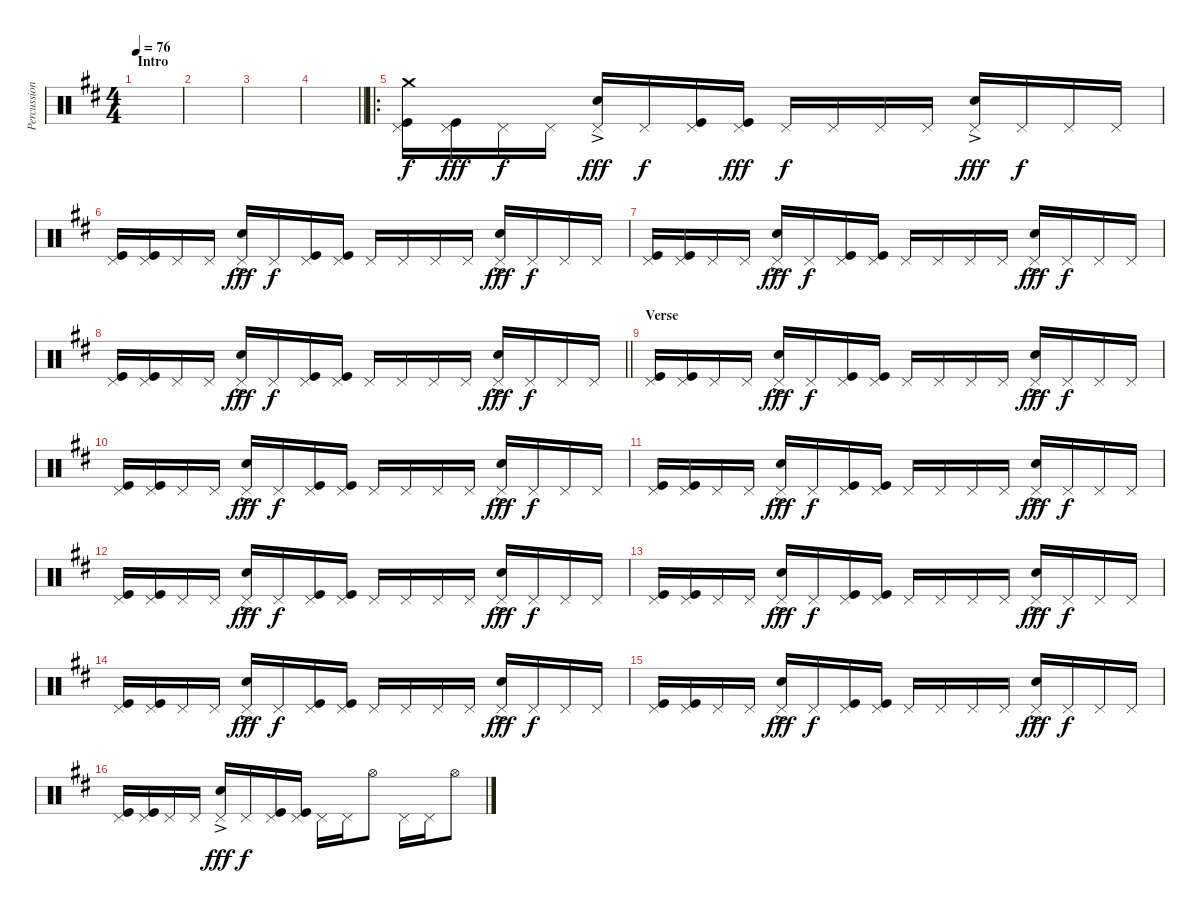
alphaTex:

\track ("Percussion" "Percussion") {instrument percussion}
\staff {score}
\articulation defaults
\ts (4 4)
\section ("" "Intro")
\tempo 76
\clef neutral
\ks d
|
|
|
\barLineRight lightlight
|
\ro
("Kick (hit)" "Pedal Hi-Hat (hit)" "Crash medium (hit)").16 ("Kick (hit)" "Pedal Hi-Hat (hit)").16{dy fff} "Pedal Hi-Hat (hit)".16{dy f} "Pedal Hi-Hat (hit)".16 ("Electric Snare (hit)"{ac} "Pedal Hi-Hat (hit)").16{dy fff} "Pedal Hi-Hat (hit)".16{dy f} ("Kick (hit)" "Pedal Hi-Hat (hit)").16 ("Kick (hit)" "Pedal Hi-Hat (hit)").16{dy fff} "Pedal Hi-Hat (hit)".16{dy f} "Pedal Hi-Hat (hit)".16 "Pedal Hi-Hat (hit)".16 "Pedal Hi-Hat (hit)".16 ("Electric Snare (hit)"{ac} "Pedal Hi-Hat (hit)").16{dy fff} "Pedal Hi-Hat (hit)".16{dy f} "Pedal Hi-Hat (hit)".16 "Pedal Hi-Hat (hit)".16 |
("Kick (hit)" "Pedal Hi-Hat (hit)").16 ("Kick (hit)" "Pedal Hi-Hat (hit)").16 "Pedal Hi-Hat (hit)".16 "Pedal Hi-Hat (hit)".16 ("Electric Snare (hit)"{ac} "Pedal Hi-Hat (hit)").16{dy fff} "Pedal Hi-Hat (hit)".16{dy f} ("Kick (hit)" "Pedal Hi-Hat (hit)").16 ("Kick (hit)" "Pedal Hi-Hat (hit)").16 "Pedal Hi-Hat (hit)".16 "Pedal Hi-Hat (hit)".16 "Pedal Hi-Hat (hit)".16 "Pedal Hi-Hat (hit)".16 ("Electric Snare (hit)"{ac} "Pedal Hi-Hat (hit)").16{dy fff} "Pedal Hi-Hat (hit)".16{dy f} "Pedal Hi-Hat (hit)".16 "Pedal Hi-Hat (hit)".16 |
("Kick (hit)" "Pedal Hi-Hat (hit)").16 ("Kick (hit)" "Pedal Hi-Hat (hit)").16 "Pedal Hi-Hat (hit)".16 "Pedal Hi-Hat (hit)".16 ("Electric Snare (hit)"{ac} "Pedal Hi-Hat (hit)").16{dy fff} "Pedal Hi-Hat (hit)".16{dy f} ("Kick (hit)" "Pedal Hi-Hat (hit)").16 ("Kick (hit)" "Pedal Hi-Hat (hit)").16 "Pedal Hi-Hat (hit)".16 "Pedal Hi-Hat (hit)".16 "Pedal Hi-Hat (hit)".16 "Pedal Hi-Hat (hit)".16 ("Electric Snare (hit)"{ac} "Pedal Hi-Hat (hit)").16{dy fff} "Pedal Hi-Hat (hit)".16{dy f} "Pedal Hi-Hat (hit)".16 "Pedal Hi-Hat (hit)".16 |
\barLineRight lightlight
("Kick (hit)" "Pedal Hi-Hat (hit)").16 ("Kick (hit)" "Pedal Hi-Hat (hit)").16 "Pedal Hi-Hat (hit)".16 "Pedal Hi-Hat (hit)".16 ("Electric Snare (hit)"{ac} "Pedal Hi-Hat (hit)").16{dy fff} "Pedal Hi-Hat (hit)".16{dy f} ("Kick (hit)" "Pedal Hi-Hat (hit)").16 ("Kick (hit)" "Pedal Hi-Hat (hit)").16 "Pedal Hi-Hat (hit)".16 "Pedal Hi-Hat (hit)".16 "Pedal Hi-Hat (hit)".16 "Pedal Hi-Hat (hit)".16 ("Electric Snare (hit)"{ac} "Pedal Hi-Hat (hit)").16{dy fff} "Pedal Hi-Hat (hit)".16{dy f} "Pedal Hi-Hat (hit)".16 "Pedal Hi-Hat (hit)".16 |
\section ("" "Verse")
("Kick (hit)" "Pedal Hi-Hat (hit)").16 ("Kick (hit)" "Pedal Hi-Hat (hit)").16 "Pedal Hi-Hat (hit)".16 "Pedal Hi-Hat (hit)".16 ("Electric Snare (hit)"{ac} "Pedal Hi-Hat (hit)").16{dy fff} "Pedal Hi-Hat (hit)".16{dy f} ("Kick (hit)" "Pedal Hi-Hat (hit)").16 ("Kick (hit)" "Pedal Hi-Hat (hit)").16 "Pedal Hi-Hat (hit)".16 "Pedal Hi-Hat (hit)".16 "Pedal Hi-Hat (hit)".16 "Pedal Hi-Hat (hit)".16 ("Electric Snare (hit)"{ac} "Pedal Hi-Hat (hit)").16{dy fff} "Pedal Hi-Hat (hit)".16{dy f} "Pedal Hi-Hat (hit)".16 "Pedal Hi-Hat (hit)".16 |
("Kick (hit)" "Pedal Hi-Hat (hit)").16 ("Kick (hit)" "Pedal Hi-Hat (hit)").16 "Pedal Hi-Hat (hit)".16 "Pedal Hi-Hat (hit)".16 ("Electric Snare (hit)"{ac} "Pedal Hi-Hat (hit)").16{dy fff} "Pedal Hi-Hat (hit)".16{dy f} ("Kick (hit)" "Pedal Hi-Hat (hit)").16 ("Kick (hit)" "Pedal Hi-Hat (hit)").16 "Pedal Hi-Hat (hit)".16 "Pedal Hi-Hat (hit)".16 "Pedal Hi-Hat (hit)".16 "Pedal Hi-Hat (hit)".16 ("Electric Snare (hit)"{ac} "Pedal Hi-Hat (hit)").16{dy fff} "Pedal Hi-Hat (hit)".16{dy f} "Pedal Hi-Hat (hit)".16 "Pedal Hi-Hat (hit)".16 |
("Kick (hit)" "Pedal Hi-Hat (hit)").16 ("Kick (hit)" "Pedal Hi-Hat (hit)").16 "Pedal Hi-Hat (hit)".16 "Pedal Hi-Hat (hit)".16 ("Electric Snare (hit)"{ac} "Pedal Hi-Hat (hit)").16{dy fff} "Pedal Hi-Hat (hit)".16{dy f} ("Kick (hit)" "Pedal Hi-Hat (hit)").16 ("Kick (hit)" "Pedal Hi-Hat (hit)").16 "Pedal Hi-Hat (hit)".16 "Pedal Hi-Hat (hit)".16 "Pedal Hi-Hat (hit)".16 "Pedal Hi-Hat (hit)".16 ("Electric Snare (hit)"{ac} "Pedal Hi-Hat (hit)").16{dy fff} "Pedal Hi-Hat (hit)".16{dy f} "Pedal Hi-Hat (hit)".16 "Pedal Hi-Hat (hit)".16 |
("Kick (hit)" "Pedal Hi-Hat (hit)").16 ("Kick (hit)" "Pedal Hi-Hat (hit)").16 "Pedal Hi-Hat (hit)".16 "Pedal Hi-Hat (hit)".16 ("Electric Snare (hit)"{ac} "Pedal Hi-Hat (hit)").16{dy fff} "Pedal Hi-Hat (hit)".16{dy f} ("Kick (hit)" "Pedal Hi-Hat (hit)").16 ("Kick (hit)" "Pedal Hi-Hat (hit)").16 "Pedal Hi-Hat (hit)".16 "Pedal Hi-Hat (hit)".16 "Pedal Hi-Hat (hit)".16 "Pedal Hi-Hat (hit)".16 ("Electric Snare (hit)"{ac} "Pedal Hi-Hat (hit)").16{dy fff} "Pedal Hi-Hat (hit)".16{dy f} "Pedal Hi-Hat (hit)".16 "Pedal Hi-Hat (hit)".16 |
("Kick (hit)" "Pedal Hi-Hat (hit)").16 ("Kick (hit)" "Pedal Hi-Hat (hit)").16 "Pedal Hi-Hat (hit)".16 "Pedal Hi-Hat (hit)".16 ("Electric Snare (hit)"{ac} "Pedal Hi-Hat (hit)").16{dy fff} "Pedal Hi-Hat (hit)".16{dy f} ("Kick (hit)" "Pedal Hi-Hat (hit)").16 ("Kick (hit)" "Pedal Hi-Hat (hit)").16 "Pedal Hi-Hat (hit)".16 "Pedal Hi-Hat (hit)".16 "Pedal Hi-Hat (hit)".16 "Pedal Hi-Hat (hit)".16 ("Electric Snare (hit)"{ac} "Pedal Hi-Hat (hit)").16{dy fff} "Pedal Hi-Hat (hit)".16{dy f} "Pedal Hi-Hat (hit)".16 "Pedal Hi-Hat (hit)".16 |
("Kick (hit)" "Pedal Hi-Hat (hit)").16 ("Kick (hit)" "Pedal Hi-Hat (hit)").16 "Pedal Hi-Hat (hit)".16 "Pedal Hi-Hat (hit)".16 ("Electric Snare (hit)"{ac} "Pedal Hi-Hat (hit)").16{dy fff} "Pedal Hi-Hat (hit)".16{dy f} ("Kick (hit)" "Pedal Hi-Hat (hit)").16 ("Kick (hit)" "Pedal Hi-Hat (hit)").16 "Pedal Hi-Hat (hit)".16 "Pedal Hi-Hat (hit)".16 "Pedal Hi-Hat (hit)".16 "Pedal Hi-Hat (hit)".16 ("Electric Snare (hit)"{ac} "Pedal Hi-Hat (hit)").16{dy fff} "Pedal Hi-Hat (hit)".16{dy f} "Pedal Hi-Hat (hit)".16 "Pedal Hi-Hat (hit)".16 |
("Kick (hit)" "Pedal Hi-Hat (hit)").16 ("Kick (hit)" "Pedal Hi-Hat (hit)").16 "Pedal Hi-Hat (hit)".16 "Pedal Hi-Hat (hit)".16 ("Electric Snare (hit)"{ac} "Pedal Hi-Hat (hit)").16{dy fff} "Pedal Hi-Hat (hit)".16{dy f} ("Kick (hit)" "Pedal Hi-Hat (hit)").16 ("Kick (hit)" "Pedal Hi-Hat (hit)").16 "Pedal Hi-Hat (hit)".16 "Pedal Hi-Hat (hit)".16 "Pedal Hi-Hat (hit)".16 "Pedal Hi-Hat (hit)".16 ("Electric Snare (hit)"{ac} "Pedal Hi-Hat (hit)").16{dy fff} "Pedal Hi-Hat (hit)".16{dy f} "Pedal Hi-Hat (hit)".16 "Pedal Hi-Hat (hit)".16 |
("Kick (hit)" "Pedal Hi-Hat (hit)").16 ("Kick (hit)" "Pedal Hi-Hat (hit)").16 "Pedal Hi-Hat (hit)".16 "Pedal Hi-Hat (hit)".16 ("Electric Snare (hit)"{ac} "Pedal Hi-Hat (hit)").16{dy fff} "Pedal Hi-Hat (hit)".16{dy f} ("Kick (hit)" "Pedal Hi-Hat (hit)").16 ("Kick (hit)" "Pedal Hi-Hat (hit)").16 "Pedal Hi-Hat (hit)".16 "Pedal Hi-Hat (hit)".16 "Hi-Hat (open)".8 "Pedal Hi-Hat (hit)".16 "Pedal Hi-Hat (hit)".16 "Hi-Hat (open)".8
